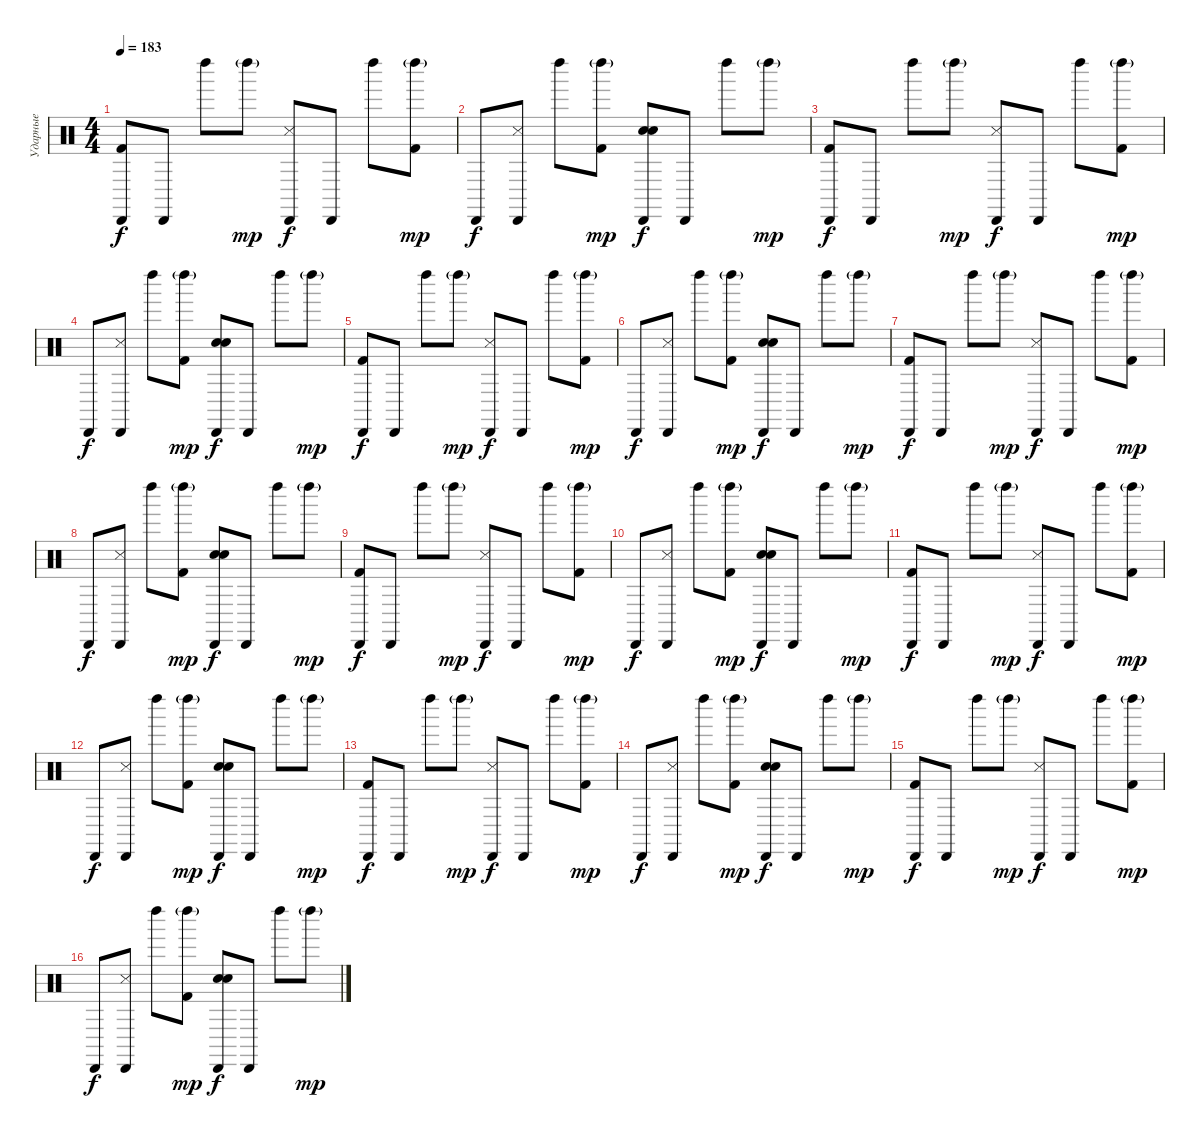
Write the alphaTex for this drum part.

\track ("Ударные" "Ударные") {instrument percussion}
\staff {score}
\articulation defaults
\ts (4 4)
\tempo 183
\clef neutral
\ks c
("Kick (hit) 2" "Cabasa (hit)").8{dy f} "Cabasa (hit)".8 "Left Maraca (hit)".8 "Left Maraca (hit)"{g}.8{dy mp} ("Snare (side stick) 3" "Cabasa (hit)").8{dy f} "Cabasa (hit)".8 "Left Maraca (hit)".8 ("Kick (hit) 2" "Left Maraca (hit)"{g}).8{dy mp} |
"Cabasa (hit)".8{dy f} ("Snare (side stick) 3" "Cabasa (hit)").8 "Left Maraca (hit)".8 ("Kick (hit) 2" "Left Maraca (hit)"{g}).8{dy mp} ("Hand Clap (hit)" "Snare (hit) 2" "Cabasa (hit)").8{dy f} "Cabasa (hit)".8 "Left Maraca (hit)".8 "Left Maraca (hit)"{g}.8{dy mp} |
("Kick (hit) 2" "Cabasa (hit)").8{dy f} "Cabasa (hit)".8 "Left Maraca (hit)".8 "Left Maraca (hit)"{g}.8{dy mp} ("Snare (side stick) 3" "Cabasa (hit)").8{dy f} "Cabasa (hit)".8 "Left Maraca (hit)".8 ("Kick (hit) 2" "Left Maraca (hit)"{g}).8{dy mp} |
"Cabasa (hit)".8{dy f} ("Snare (side stick) 3" "Cabasa (hit)").8 "Left Maraca (hit)".8 ("Kick (hit) 2" "Left Maraca (hit)"{g}).8{dy mp} ("Hand Clap (hit)" "Snare (hit) 2" "Cabasa (hit)").8{dy f} "Cabasa (hit)".8 "Left Maraca (hit)".8 "Left Maraca (hit)"{g}.8{dy mp} |
("Kick (hit) 2" "Cabasa (hit)").8{dy f} "Cabasa (hit)".8 "Left Maraca (hit)".8 "Left Maraca (hit)"{g}.8{dy mp} ("Snare (side stick) 3" "Cabasa (hit)").8{dy f} "Cabasa (hit)".8 "Left Maraca (hit)".8 ("Kick (hit) 2" "Left Maraca (hit)"{g}).8{dy mp} |
"Cabasa (hit)".8{dy f} ("Snare (side stick) 3" "Cabasa (hit)").8 "Left Maraca (hit)".8 ("Kick (hit) 2" "Left Maraca (hit)"{g}).8{dy mp} ("Hand Clap (hit)" "Snare (hit) 2" "Cabasa (hit)").8{dy f} "Cabasa (hit)".8 "Left Maraca (hit)".8 "Left Maraca (hit)"{g}.8{dy mp} |
("Kick (hit) 2" "Cabasa (hit)").8{dy f} "Cabasa (hit)".8 "Left Maraca (hit)".8 "Left Maraca (hit)"{g}.8{dy mp} ("Snare (side stick) 3" "Cabasa (hit)").8{dy f} "Cabasa (hit)".8 "Left Maraca (hit)".8 ("Kick (hit) 2" "Left Maraca (hit)"{g}).8{dy mp} |
"Cabasa (hit)".8{dy f} ("Snare (side stick) 3" "Cabasa (hit)").8 "Left Maraca (hit)".8 ("Kick (hit) 2" "Left Maraca (hit)"{g}).8{dy mp} ("Hand Clap (hit)" "Snare (hit) 2" "Cabasa (hit)").8{dy f} "Cabasa (hit)".8 "Left Maraca (hit)".8 "Left Maraca (hit)"{g}.8{dy mp} |
("Kick (hit) 2" "Cabasa (hit)").8{dy f} "Cabasa (hit)".8 "Left Maraca (hit)".8 "Left Maraca (hit)"{g}.8{dy mp} ("Snare (side stick) 3" "Cabasa (hit)").8{dy f} "Cabasa (hit)".8 "Left Maraca (hit)".8 ("Kick (hit) 2" "Left Maraca (hit)"{g}).8{dy mp} |
"Cabasa (hit)".8{dy f} ("Snare (side stick) 3" "Cabasa (hit)").8 "Left Maraca (hit)".8 ("Kick (hit) 2" "Left Maraca (hit)"{g}).8{dy mp} ("Hand Clap (hit)" "Snare (hit) 2" "Cabasa (hit)").8{dy f} "Cabasa (hit)".8 "Left Maraca (hit)".8 "Left Maraca (hit)"{g}.8{dy mp} |
("Kick (hit) 2" "Cabasa (hit)").8{dy f} "Cabasa (hit)".8 "Left Maraca (hit)".8 "Left Maraca (hit)"{g}.8{dy mp} ("Snare (side stick) 3" "Cabasa (hit)").8{dy f} "Cabasa (hit)".8 "Left Maraca (hit)".8 ("Kick (hit) 2" "Left Maraca (hit)"{g}).8{dy mp} |
"Cabasa (hit)".8{dy f} ("Snare (side stick) 3" "Cabasa (hit)").8 "Left Maraca (hit)".8 ("Kick (hit) 2" "Left Maraca (hit)"{g}).8{dy mp} ("Hand Clap (hit)" "Snare (hit) 2" "Cabasa (hit)").8{dy f} "Cabasa (hit)".8 "Left Maraca (hit)".8 "Left Maraca (hit)"{g}.8{dy mp} |
("Kick (hit) 2" "Cabasa (hit)").8{dy f} "Cabasa (hit)".8 "Left Maraca (hit)".8 "Left Maraca (hit)"{g}.8{dy mp} ("Snare (side stick) 3" "Cabasa (hit)").8{dy f} "Cabasa (hit)".8 "Left Maraca (hit)".8 ("Kick (hit) 2" "Left Maraca (hit)"{g}).8{dy mp} |
"Cabasa (hit)".8{dy f} ("Snare (side stick) 3" "Cabasa (hit)").8 "Left Maraca (hit)".8 ("Kick (hit) 2" "Left Maraca (hit)"{g}).8{dy mp} ("Hand Clap (hit)" "Snare (hit) 2" "Cabasa (hit)").8{dy f} "Cabasa (hit)".8 "Left Maraca (hit)".8 "Left Maraca (hit)"{g}.8{dy mp} |
("Kick (hit) 2" "Cabasa (hit)").8{dy f} "Cabasa (hit)".8 "Left Maraca (hit)".8 "Left Maraca (hit)"{g}.8{dy mp} ("Snare (side stick) 3" "Cabasa (hit)").8{dy f} "Cabasa (hit)".8 "Left Maraca (hit)".8 ("Kick (hit) 2" "Left Maraca (hit)"{g}).8{dy mp} |
"Cabasa (hit)".8{dy f} ("Snare (side stick) 3" "Cabasa (hit)").8 "Left Maraca (hit)".8 ("Kick (hit) 2" "Left Maraca (hit)"{g}).8{dy mp} ("Hand Clap (hit)" "Snare (hit) 2" "Cabasa (hit)").8{dy f} "Cabasa (hit)".8 "Left Maraca (hit)".8 "Left Maraca (hit)"{g}.8{dy mp}
